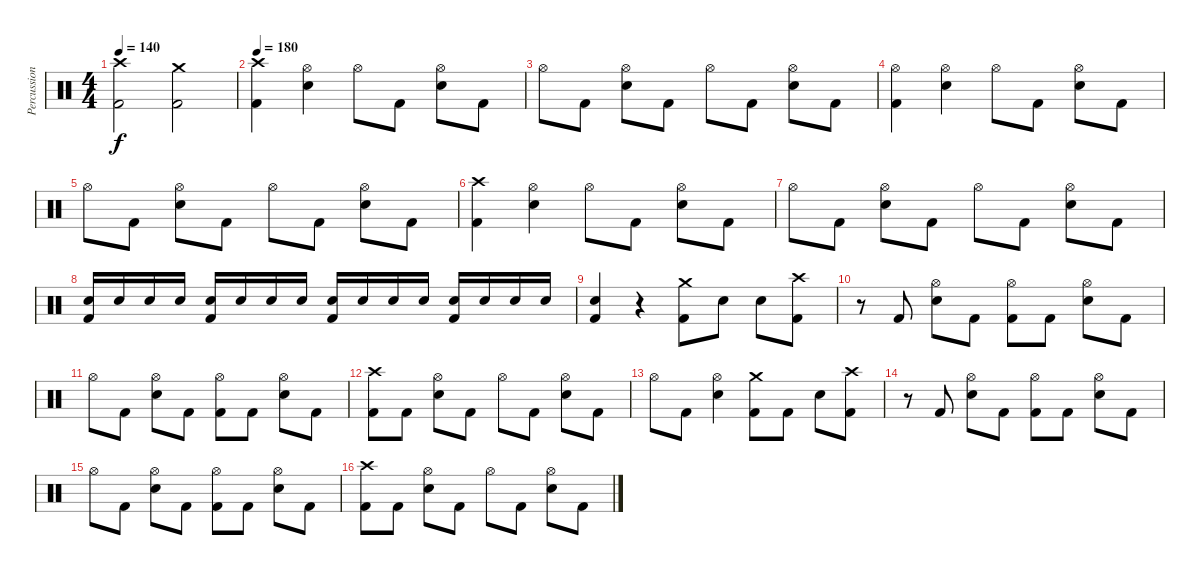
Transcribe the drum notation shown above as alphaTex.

\track ("Percussion" "Percussion") {instrument percussion}
\staff {score}
\articulation defaults
\ts (4 4)
\tempo 140
\clef neutral
\ks c
("Crash high (hit)" "Kick (hit) 2").2{dy f} ("Crash medium (hit)" "Kick (hit) 2").2 |
\tempo 180
("Crash high (hit)" "Kick (hit) 2").4 ("Hi-Hat (open)" "Electric Snare (hit)").4 "Hi-Hat (open)".8 "Kick (hit) 2".8 ("Hi-Hat (open)" "Electric Snare (hit)").8 "Kick (hit) 2".8 |
"Hi-Hat (open)".8 "Kick (hit) 2".8 ("Hi-Hat (open)" "Electric Snare (hit)").8 "Kick (hit) 2".8 "Hi-Hat (open)".8 "Kick (hit) 2".8 ("Hi-Hat (open)" "Electric Snare (hit)").8 "Kick (hit) 2".8 |
("Hi-Hat (open)" "Kick (hit) 2").4 ("Hi-Hat (open)" "Electric Snare (hit)").4 "Hi-Hat (open)".8 "Kick (hit) 2".8 ("Hi-Hat (open)" "Electric Snare (hit)").8 "Kick (hit) 2".8 |
"Hi-Hat (open)".8 "Kick (hit) 2".8 ("Hi-Hat (open)" "Electric Snare (hit)").8 "Kick (hit) 2".8 "Hi-Hat (open)".8 "Kick (hit) 2".8 ("Hi-Hat (open)" "Electric Snare (hit)").8 "Kick (hit) 2".8 |
("Crash high (hit)" "Kick (hit) 2").4 ("Hi-Hat (open)" "Electric Snare (hit)").4 "Hi-Hat (open)".8 "Kick (hit) 2".8 ("Hi-Hat (open)" "Electric Snare (hit)").8 "Kick (hit) 2".8 |
"Hi-Hat (open)".8 "Kick (hit) 2".8 ("Hi-Hat (open)" "Electric Snare (hit)").8 "Kick (hit) 2".8 "Hi-Hat (open)".8 "Kick (hit) 2".8 ("Hi-Hat (open)" "Electric Snare (hit)").8 "Kick (hit) 2".8 |
("Electric Snare (hit)" "Kick (hit) 2").16 "Electric Snare (hit)".16 "Electric Snare (hit)".16 "Electric Snare (hit)".16 ("Electric Snare (hit)" "Kick (hit) 2").16 "Electric Snare (hit)".16 "Electric Snare (hit)".16 "Electric Snare (hit)".16 ("Electric Snare (hit)" "Kick (hit) 2").16 "Electric Snare (hit)".16 "Electric Snare (hit)".16 "Electric Snare (hit)".16 ("Electric Snare (hit)" "Kick (hit) 2").16 "Electric Snare (hit)".16 "Electric Snare (hit)".16 "Electric Snare (hit)".16 |
("Electric Snare (hit)" "Kick (hit) 2").4 r.4 ("Crash medium (hit)" "Kick (hit) 2").8 "Electric Snare (hit)".8 "Electric Snare (hit)".8 ("Crash high (hit)" "Kick (hit) 2").8 |
r.8 "Kick (hit) 2".8 ("Hi-Hat (open)" "Electric Snare (hit)").8 "Kick (hit) 2".8 ("Hi-Hat (open)" "Kick (hit) 2").8 "Kick (hit) 2".8 ("Hi-Hat (open)" "Electric Snare (hit)").8 "Kick (hit) 2".8 |
"Hi-Hat (open)".8 "Kick (hit) 2".8 ("Hi-Hat (open)" "Electric Snare (hit)").8 "Kick (hit) 2".8 ("Hi-Hat (open)" "Kick (hit) 2").8 "Kick (hit) 2".8 ("Hi-Hat (open)" "Electric Snare (hit)").8 "Kick (hit) 2".8 |
("Crash high (hit)" "Kick (hit) 2").8 "Kick (hit) 2".8 ("Hi-Hat (open)" "Electric Snare (hit)").8 "Kick (hit) 2".8 "Hi-Hat (open)".8 "Kick (hit) 2".8 ("Hi-Hat (open)" "Electric Snare (hit)").8 "Kick (hit) 2".8 |
"Hi-Hat (open)".8 "Kick (hit) 2".8 ("Hi-Hat (open)" "Electric Snare (hit)").4 ("Crash medium (hit)" "Kick (hit) 2").8 "Kick (hit) 2".8 "Electric Snare (hit)".8 ("Crash high (hit)" "Kick (hit) 2").8 |
r.8 "Kick (hit) 2".8 ("Hi-Hat (open)" "Electric Snare (hit)").8 "Kick (hit) 2".8 ("Hi-Hat (open)" "Kick (hit) 2").8 "Kick (hit) 2".8 ("Hi-Hat (open)" "Electric Snare (hit)").8 "Kick (hit) 2".8 |
"Hi-Hat (open)".8 "Kick (hit) 2".8 ("Hi-Hat (open)" "Electric Snare (hit)").8 "Kick (hit) 2".8 ("Hi-Hat (open)" "Kick (hit) 2").8 "Kick (hit) 2".8 ("Hi-Hat (open)" "Electric Snare (hit)").8 "Kick (hit) 2".8 |
("Crash high (hit)" "Kick (hit) 2").8 "Kick (hit) 2".8 ("Hi-Hat (open)" "Electric Snare (hit)").8 "Kick (hit) 2".8 "Hi-Hat (open)".8 "Kick (hit) 2".8 ("Hi-Hat (open)" "Electric Snare (hit)").8 "Kick (hit) 2".8
